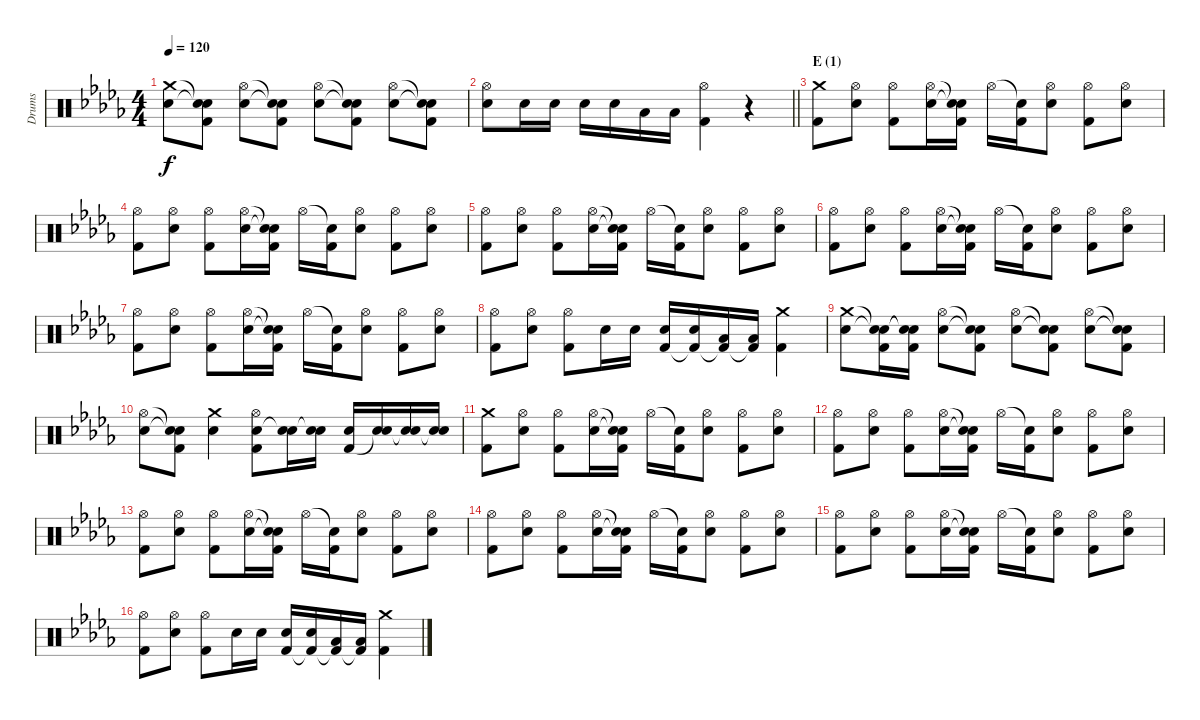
\track ("Drums" "Drums") {instrument percussion}
\staff {score}
\articulation defaults
\ts (4 4)
\tempo 120
\clef neutral
\ks db
("Crash medium (hit)" "Electric Snare (hit)").8{dy f} ("Snare (hit)"{t} "Snare (hit)"{t} "Kick (hit) 2").8 ("Hi-Hat (open)" "Electric Snare (hit)").8 ("Snare (hit)"{t} "Snare (hit)"{t} "Kick (hit) 2").8 ("Hi-Hat (open)" "Electric Snare (hit)").8 ("Snare (hit)"{t} "Snare (hit)"{t} "Kick (hit) 2").8 ("Hi-Hat (open)" "Electric Snare (hit)").8 ("Snare (hit)"{t} "Snare (hit)"{t} "Kick (hit) 2").8 |
\barLineRight lightlight
("Hi-Hat (open)" "Electric Snare (hit)").8 "Electric Snare (hit)".16 "Electric Snare (hit)".16 "Electric Snare (hit)".16 "Electric Snare (hit)".16 "Low Tom (hit)".16 "Low Tom (hit)".16 ("Hi-Hat (open)" "Kick (hit) 2").4 r.4 |
\section ("" "E (1)")
("Crash medium (hit)" "Kick (hit) 2").8 ("Hi-Hat (open)" "Electric Snare (hit)").8 ("Hi-Hat (open)" "Kick (hit) 2").8 ("Hi-Hat (open)" "Electric Snare (hit)").16 ("Snare (hit)"{t} "Snare (hit)"{t} "Kick (hit) 2").16 "Hi-Hat (open)".16 ("Snare (hit)"{t} "Kick (hit) 2").16 ("Hi-Hat (open)" "Electric Snare (hit)").8 ("Hi-Hat (open)" "Kick (hit) 2").8 ("Hi-Hat (open)" "Electric Snare (hit)").8 |
("Hi-Hat (open)" "Kick (hit) 2").8 ("Hi-Hat (open)" "Electric Snare (hit)").8 ("Hi-Hat (open)" "Kick (hit) 2").8 ("Hi-Hat (open)" "Electric Snare (hit)").16 ("Snare (hit)"{t} "Snare (hit)"{t} "Kick (hit) 2").16 "Hi-Hat (open)".16 ("Snare (hit)"{t} "Kick (hit) 2").16 ("Hi-Hat (open)" "Electric Snare (hit)").8 ("Hi-Hat (open)" "Kick (hit) 2").8 ("Hi-Hat (open)" "Electric Snare (hit)").8 |
("Hi-Hat (open)" "Kick (hit) 2").8 ("Hi-Hat (open)" "Electric Snare (hit)").8 ("Hi-Hat (open)" "Kick (hit) 2").8 ("Hi-Hat (open)" "Electric Snare (hit)").16 ("Snare (hit)"{t} "Snare (hit)"{t} "Kick (hit) 2").16 "Hi-Hat (open)".16 ("Snare (hit)"{t} "Kick (hit) 2").16 ("Hi-Hat (open)" "Electric Snare (hit)").8 ("Hi-Hat (open)" "Kick (hit) 2").8 ("Hi-Hat (open)" "Electric Snare (hit)").8 |
("Hi-Hat (open)" "Kick (hit) 2").8 ("Hi-Hat (open)" "Electric Snare (hit)").8 ("Hi-Hat (open)" "Kick (hit) 2").8 ("Hi-Hat (open)" "Electric Snare (hit)").16 ("Snare (hit)"{t} "Snare (hit)"{t} "Kick (hit) 2").16 "Hi-Hat (open)".16 ("Snare (hit)"{t} "Kick (hit) 2").16 ("Hi-Hat (open)" "Electric Snare (hit)").8 ("Hi-Hat (open)" "Kick (hit) 2").8 ("Hi-Hat (open)" "Electric Snare (hit)").8 |
("Hi-Hat (open)" "Kick (hit) 2").8 ("Hi-Hat (open)" "Electric Snare (hit)").8 ("Hi-Hat (open)" "Kick (hit) 2").8 ("Hi-Hat (open)" "Electric Snare (hit)").16 ("Snare (hit)"{t} "Snare (hit)"{t} "Kick (hit) 2").16 "Hi-Hat (open)".16 ("Snare (hit)"{t} "Kick (hit) 2").16 ("Hi-Hat (open)" "Electric Snare (hit)").8 ("Hi-Hat (open)" "Kick (hit) 2").8 ("Hi-Hat (open)" "Electric Snare (hit)").8 |
("Hi-Hat (open)" "Kick (hit) 2").8 ("Hi-Hat (open)" "Electric Snare (hit)").8 ("Hi-Hat (open)" "Kick (hit) 2").8 "Electric Snare (hit)".16 "Electric Snare (hit)".16 ("Electric Snare (hit)" "Kick (hit) 2").16 ("Electric Snare (hit)" "Kick (hit) 2"{t}).16 ("Low Tom (hit)" "Kick (hit) 2"{t}).16 ("Low Tom (hit)" "Kick (hit) 2"{t}).16 ("Crash medium (hit)" "Kick (hit) 2").4 |
("Crash medium (hit)" "Electric Snare (hit)").8 ("Snare (hit)"{t} "Snare (hit)"{t} "Kick (hit) 2").16 ("Snare (hit)"{t} "Snare (hit)"{t} "Kick (hit) 2").16 ("Hi-Hat (open)" "Electric Snare (hit)").8 ("Snare (hit)"{t} "Snare (hit)"{t} "Kick (hit) 2").8 ("Hi-Hat (open)" "Electric Snare (hit)").8 ("Snare (hit)"{t} "Snare (hit)"{t} "Kick (hit) 2").8 ("Hi-Hat (open)" "Electric Snare (hit)").8 ("Snare (hit)"{t} "Snare (hit)"{t} "Kick (hit) 2").8 |
("Hi-Hat (open)" "Electric Snare (hit)").8 ("Snare (hit)"{t} "Snare (hit)"{t} "Kick (hit) 2").8 ("Crash medium (hit)" "Electric Snare (hit)").4 ("Hi-Hat (open)" "Electric Snare (hit)" "Kick (hit) 2").8 ("Electric Snare (hit)" "Snare (hit)"{t}).16 ("Electric Snare (hit)" "Snare (hit)"{t}).16 ("Electric Snare (hit)" "Kick (hit) 2").16 ("Electric Snare (hit)" "Snare (hit)"{t}).16 ("Electric Snare (hit)" "Snare (hit)"{t}).16 ("Electric Snare (hit)" "Snare (hit)"{t}).16 |
("Crash medium (hit)" "Kick (hit) 2").8 ("Hi-Hat (open)" "Electric Snare (hit)").8 ("Hi-Hat (open)" "Kick (hit) 2").8 ("Hi-Hat (open)" "Electric Snare (hit)").16 ("Snare (hit)"{t} "Snare (hit)"{t} "Kick (hit) 2").16 "Hi-Hat (open)".16 ("Snare (hit)"{t} "Kick (hit) 2").16 ("Hi-Hat (open)" "Electric Snare (hit)").8 ("Hi-Hat (open)" "Kick (hit) 2").8 ("Hi-Hat (open)" "Electric Snare (hit)").8 |
("Hi-Hat (open)" "Kick (hit) 2").8 ("Hi-Hat (open)" "Electric Snare (hit)").8 ("Hi-Hat (open)" "Kick (hit) 2").8 ("Hi-Hat (open)" "Electric Snare (hit)").16 ("Snare (hit)"{t} "Snare (hit)"{t} "Kick (hit) 2").16 "Hi-Hat (open)".16 ("Snare (hit)"{t} "Kick (hit) 2").16 ("Hi-Hat (open)" "Electric Snare (hit)").8 ("Hi-Hat (open)" "Kick (hit) 2").8 ("Hi-Hat (open)" "Electric Snare (hit)").8 |
("Hi-Hat (open)" "Kick (hit) 2").8 ("Hi-Hat (open)" "Electric Snare (hit)").8 ("Hi-Hat (open)" "Kick (hit) 2").8 ("Hi-Hat (open)" "Electric Snare (hit)").16 ("Snare (hit)"{t} "Snare (hit)"{t} "Kick (hit) 2").16 "Hi-Hat (open)".16 ("Snare (hit)"{t} "Kick (hit) 2").16 ("Hi-Hat (open)" "Electric Snare (hit)").8 ("Hi-Hat (open)" "Kick (hit) 2").8 ("Hi-Hat (open)" "Electric Snare (hit)").8 |
("Hi-Hat (open)" "Kick (hit) 2").8 ("Hi-Hat (open)" "Electric Snare (hit)").8 ("Hi-Hat (open)" "Kick (hit) 2").8 ("Hi-Hat (open)" "Electric Snare (hit)").16 ("Snare (hit)"{t} "Snare (hit)"{t} "Kick (hit) 2").16 "Hi-Hat (open)".16 ("Snare (hit)"{t} "Kick (hit) 2").16 ("Hi-Hat (open)" "Electric Snare (hit)").8 ("Hi-Hat (open)" "Kick (hit) 2").8 ("Hi-Hat (open)" "Electric Snare (hit)").8 |
("Hi-Hat (open)" "Kick (hit) 2").8 ("Hi-Hat (open)" "Electric Snare (hit)").8 ("Hi-Hat (open)" "Kick (hit) 2").8 ("Hi-Hat (open)" "Electric Snare (hit)").16 ("Snare (hit)"{t} "Snare (hit)"{t} "Kick (hit) 2").16 "Hi-Hat (open)".16 ("Snare (hit)"{t} "Kick (hit) 2").16 ("Hi-Hat (open)" "Electric Snare (hit)").8 ("Hi-Hat (open)" "Kick (hit) 2").8 ("Hi-Hat (open)" "Electric Snare (hit)").8 |
("Hi-Hat (open)" "Kick (hit) 2").8 ("Hi-Hat (open)" "Electric Snare (hit)").8 ("Hi-Hat (open)" "Kick (hit) 2").8 "Electric Snare (hit)".16 "Electric Snare (hit)".16 ("Electric Snare (hit)" "Kick (hit) 2").16 ("Electric Snare (hit)" "Kick (hit) 2"{t}).16 ("Low Tom (hit)" "Kick (hit) 2"{t}).16 ("Low Tom (hit)" "Kick (hit) 2"{t}).16 ("Crash medium (hit)" "Kick (hit) 2").4
